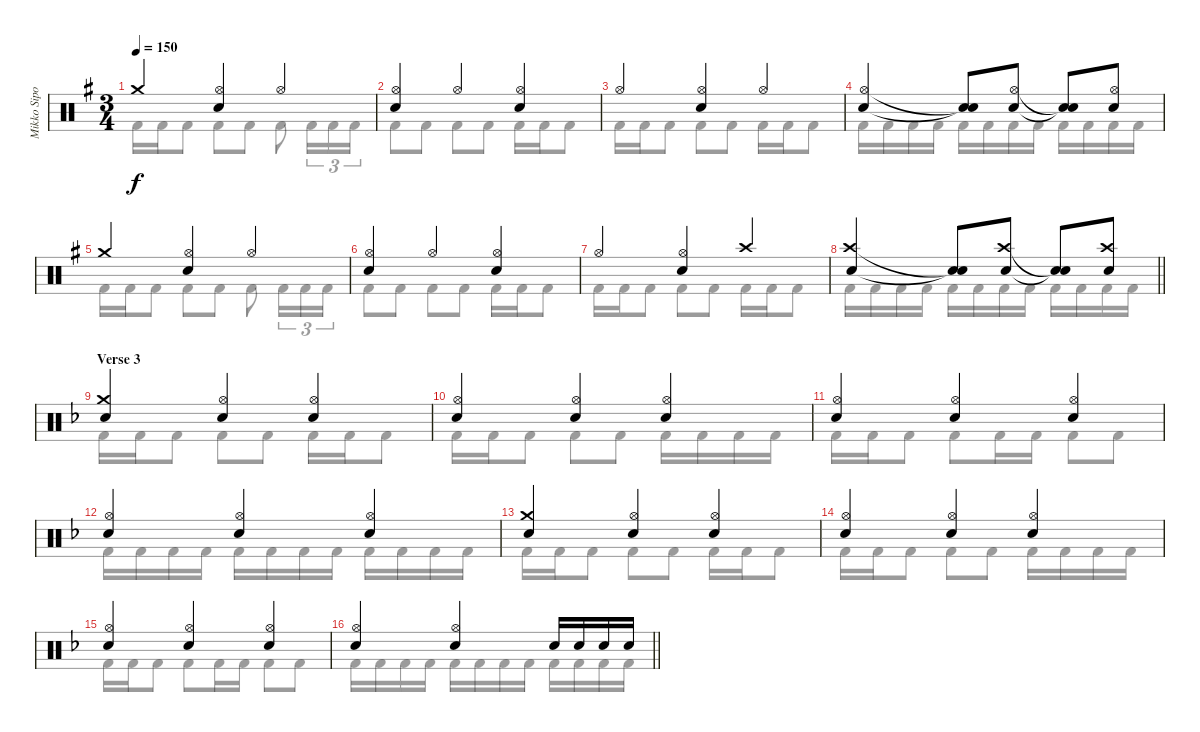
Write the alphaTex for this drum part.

\track ("Mikko Sipola (drums)" "Mikko Sipo") {instrument percussion}
\staff {score}
\articulation defaults
\voice
\ts (3 4)
\tempo 150
\clef neutral
\ks eminor "Crash medium (hit)".4{dy f}
("Hi-Hat (open)" "Electric Snare (hit)").4 "Hi-Hat (open)".4 |
("Hi-Hat (open)" "Electric Snare (hit)").4 "Hi-Hat (open)".4 ("Hi-Hat (open)" "Electric Snare (hit)").4 |
"Hi-Hat (open)".4 ("Hi-Hat (open)" "Electric Snare (hit)").4 "Hi-Hat (open)".4 |
("Hi-Hat (open)" "Electric Snare (hit)").4 ("Snare (hit)"{t} "Snare (hit)"{t}).8 ("Hi-Hat (open)" "Electric Snare (hit)").8 ("Snare (hit)"{t} "Snare (hit)"{t}).8 ("Hi-Hat (open)" "Electric Snare (hit)").8 |
"Crash medium (hit)".4 ("Hi-Hat (open)" "Electric Snare (hit)").4 "Hi-Hat (open)".4 |
("Hi-Hat (open)" "Electric Snare (hit)").4 "Hi-Hat (open)".4 ("Hi-Hat (open)" "Electric Snare (hit)").4 |
"Hi-Hat (open)".4 ("Hi-Hat (open)" "Electric Snare (hit)").4 "Crash high (hit)".4 |
\barLineRight lightlight
("Crash high (hit)" "Electric Snare (hit)").4 ("Snare (hit)"{t} "Snare (hit)"{t}).8 ("Crash high (hit)" "Electric Snare (hit)").8 ("Snare (hit)"{t} "Snare (hit)"{t}).8 ("Crash high (hit)" "Electric Snare (hit)").8 |
\section ("" "Verse 3")
\ks dminor
("Crash medium (hit)" "Electric Snare (hit)").4 ("Hi-Hat (open)" "Electric Snare (hit)").4 ("Hi-Hat (open)" "Electric Snare (hit)").4 |
("Hi-Hat (open)" "Electric Snare (hit)").4 ("Hi-Hat (open)" "Electric Snare (hit)").4 ("Hi-Hat (open)" "Electric Snare (hit)").4 |
("Hi-Hat (open)" "Electric Snare (hit)").4 ("Hi-Hat (open)" "Electric Snare (hit)").4 ("Hi-Hat (open)" "Electric Snare (hit)").4 |
("Hi-Hat (open)" "Electric Snare (hit)").4 ("Hi-Hat (open)" "Electric Snare (hit)").4 ("Hi-Hat (open)" "Electric Snare (hit)").4 |
("Crash medium (hit)" "Electric Snare (hit)").4 ("Hi-Hat (open)" "Electric Snare (hit)").4 ("Hi-Hat (open)" "Electric Snare (hit)").4 |
("Hi-Hat (open)" "Electric Snare (hit)").4 ("Hi-Hat (open)" "Electric Snare (hit)").4 ("Hi-Hat (open)" "Electric Snare (hit)").4 |
("Hi-Hat (open)" "Electric Snare (hit)").4 ("Hi-Hat (open)" "Electric Snare (hit)").4 ("Hi-Hat (open)" "Electric Snare (hit)").4 |
\barLineRight lightlight
("Hi-Hat (open)" "Electric Snare (hit)").4 ("Hi-Hat (open)" "Electric Snare (hit)").4 "Electric Snare (hit)".16 "Electric Snare (hit)".16 "Electric Snare (hit)".16 "Electric Snare (hit)".16
\voice
\clef neutral
\ottava regular
\simile none
\ks eminor "Kick (hit) 2".16{dy f} "Kick (hit) 2".16 "Kick (hit) 2".8 "Kick (hit) 2".8 "Kick (hit) 2".8 "Kick (hit) 2".8 "Kick (hit) 2".16{tu (3 2)} "Kick (hit) 2".16{tu (3 2)} "Kick (hit) 2".16{tu (3 2)}
|
"Kick (hit) 2".8 "Kick (hit) 2".8 "Kick (hit) 2".8 "Kick (hit) 2".8 "Kick (hit) 2".16 "Kick (hit) 2".16 "Kick (hit) 2".8 |
"Kick (hit) 2".16 "Kick (hit) 2".16 "Kick (hit) 2".8 "Kick (hit) 2".8 "Kick (hit) 2".8 "Kick (hit) 2".16 "Kick (hit) 2".16 "Kick (hit) 2".8 |
"Kick (hit) 2".16 "Kick (hit) 2".16 "Kick (hit) 2".16 "Kick (hit) 2".16 "Kick (hit) 2".16 "Kick (hit) 2".16 "Kick (hit) 2".16 "Kick (hit) 2".16 "Kick (hit) 2".16 "Kick (hit) 2".16 "Kick (hit) 2".16 "Kick (hit) 2".16 |
"Kick (hit) 2".16 "Kick (hit) 2".16 "Kick (hit) 2".8 "Kick (hit) 2".8 "Kick (hit) 2".8 "Kick (hit) 2".8 "Kick (hit) 2".16{tu (3 2)} "Kick (hit) 2".16{tu (3 2)} "Kick (hit) 2".16{tu (3 2)} |
"Kick (hit) 2".8 "Kick (hit) 2".8 "Kick (hit) 2".8 "Kick (hit) 2".8 "Kick (hit) 2".16 "Kick (hit) 2".16 "Kick (hit) 2".8 |
"Kick (hit) 2".16 "Kick (hit) 2".16 "Kick (hit) 2".8 "Kick (hit) 2".8 "Kick (hit) 2".8 "Kick (hit) 2".16 "Kick (hit) 2".16 "Kick (hit) 2".8 |
\barLineRight lightlight "Kick (hit) 2".16 "Kick (hit) 2".16 "Kick (hit) 2".16 "Kick (hit) 2".16 "Kick (hit) 2".16 "Kick (hit) 2".16 "Kick (hit) 2".16 "Kick (hit) 2".16 "Kick (hit) 2".16 "Kick (hit) 2".16 "Kick (hit) 2".16 "Kick (hit) 2".16
|
\ks dminor "Kick (hit) 2".16 "Kick (hit) 2".16 "Kick (hit) 2".8 "Kick (hit) 2".8 "Kick (hit) 2".8 "Kick (hit) 2".16 "Kick (hit) 2".16 "Kick (hit) 2".8
|
"Kick (hit) 2".16 "Kick (hit) 2".16 "Kick (hit) 2".8 "Kick (hit) 2".8 "Kick (hit) 2".8 "Kick (hit) 2".16 "Kick (hit) 2".16 "Kick (hit) 2".16 "Kick (hit) 2".16 |
"Kick (hit) 2".16 "Kick (hit) 2".16 "Kick (hit) 2".8 "Kick (hit) 2".8 "Kick (hit) 2".16 "Kick (hit) 2".16 "Kick (hit) 2".8 "Kick (hit) 2".8 |
"Kick (hit) 2".16 "Kick (hit) 2".16 "Kick (hit) 2".16 "Kick (hit) 2".16 "Kick (hit) 2".16 "Kick (hit) 2".16 "Kick (hit) 2".16 "Kick (hit) 2".16 "Kick (hit) 2".16 "Kick (hit) 2".16 "Kick (hit) 2".16 "Kick (hit) 2".16 |
"Kick (hit) 2".16 "Kick (hit) 2".16 "Kick (hit) 2".8 "Kick (hit) 2".8 "Kick (hit) 2".8 "Kick (hit) 2".16 "Kick (hit) 2".16 "Kick (hit) 2".8 |
"Kick (hit) 2".16 "Kick (hit) 2".16 "Kick (hit) 2".8 "Kick (hit) 2".8 "Kick (hit) 2".8 "Kick (hit) 2".16 "Kick (hit) 2".16 "Kick (hit) 2".16 "Kick (hit) 2".16 |
"Kick (hit) 2".16 "Kick (hit) 2".16 "Kick (hit) 2".8 "Kick (hit) 2".8 "Kick (hit) 2".16 "Kick (hit) 2".16 "Kick (hit) 2".8 "Kick (hit) 2".8 |
\barLineRight lightlight "Kick (hit) 2".16 "Kick (hit) 2".16 "Kick (hit) 2".16 "Kick (hit) 2".16 "Kick (hit) 2".16 "Kick (hit) 2".16 "Kick (hit) 2".16 "Kick (hit) 2".16 "Kick (hit) 2".16 "Kick (hit) 2".16 "Kick (hit) 2".16 "Kick (hit) 2".16
